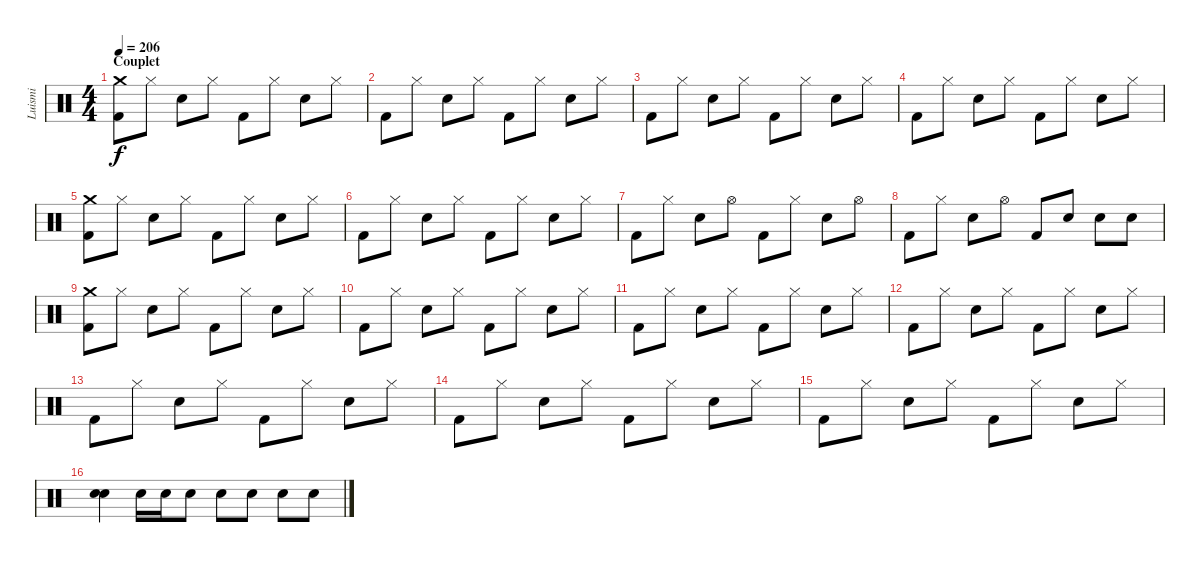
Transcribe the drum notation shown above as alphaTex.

\track ("Luismi" "Luismi") {instrument percussion}
\staff {score}
\articulation defaults
\ts (4 4)
\section ("" "Couplet")
\tempo 206
\clef neutral
\ks c
("Crash medium (hit)" "Kick (hit) 2").8{dy f} "Hi-Hat (closed)".8 "Snare (hit) 2".8 "Hi-Hat (closed)".8 "Kick (hit) 2".8 "Hi-Hat (closed)".8 "Snare (hit) 2".8 "Hi-Hat (closed)".8 |
"Kick (hit) 2".8 "Hi-Hat (closed)".8 "Snare (hit) 2".8 "Hi-Hat (closed)".8 "Kick (hit) 2".8 "Hi-Hat (closed)".8 "Snare (hit) 2".8 "Hi-Hat (closed)".8 |
"Kick (hit) 2".8 "Hi-Hat (closed)".8 "Snare (hit) 2".8 "Hi-Hat (closed)".8 "Kick (hit) 2".8 "Hi-Hat (closed)".8 "Snare (hit) 2".8 "Hi-Hat (closed)".8 |
"Kick (hit) 2".8 "Hi-Hat (closed)".8 "Snare (hit) 2".8 "Hi-Hat (closed)".8 "Kick (hit) 2".8 "Hi-Hat (closed)".8 "Snare (hit) 2".8 "Hi-Hat (closed)".8 |
("Crash medium (hit)" "Kick (hit) 2").8 "Hi-Hat (closed)".8 "Snare (hit) 2".8 "Hi-Hat (closed)".8 "Kick (hit) 2".8 "Hi-Hat (closed)".8 "Snare (hit) 2".8 "Hi-Hat (closed)".8 |
"Kick (hit) 2".8 "Hi-Hat (closed)".8 "Snare (hit) 2".8 "Hi-Hat (closed)".8 "Kick (hit) 2".8 "Hi-Hat (closed)".8 "Snare (hit) 2".8 "Hi-Hat (closed)".8 |
"Kick (hit) 2".8 "Hi-Hat (closed)".8 "Snare (hit) 2".8 "Hi-Hat (open)".8 "Kick (hit) 2".8 "Hi-Hat (closed)".8 "Snare (hit) 2".8 "Hi-Hat (open)".8 |
"Kick (hit) 2".8 "Hi-Hat (closed)".8 "Snare (hit) 2".8 "Hi-Hat (open)".8 "Kick (hit) 2".8 "Snare (hit) 2".8 "Snare (hit) 2".8 "Snare (hit) 2".8 |
("Crash medium (hit)" "Kick (hit) 2").8 "Hi-Hat (closed)".8 "Snare (hit) 2".8 "Hi-Hat (closed)".8 "Kick (hit) 2".8 "Hi-Hat (closed)".8 "Snare (hit) 2".8 "Hi-Hat (closed)".8 |
"Kick (hit) 2".8 "Hi-Hat (closed)".8 "Snare (hit) 2".8 "Hi-Hat (closed)".8 "Kick (hit) 2".8 "Hi-Hat (closed)".8 "Snare (hit) 2".8 "Hi-Hat (closed)".8 |
"Kick (hit) 2".8 "Hi-Hat (closed)".8 "Snare (hit) 2".8 "Hi-Hat (closed)".8 "Kick (hit) 2".8 "Hi-Hat (closed)".8 "Snare (hit) 2".8 "Hi-Hat (closed)".8 |
"Kick (hit) 2".8 "Hi-Hat (closed)".8 "Snare (hit) 2".8 "Hi-Hat (closed)".8 "Kick (hit) 2".8 "Hi-Hat (closed)".8 "Snare (hit) 2".8 "Hi-Hat (closed)".8 |
"Kick (hit) 2".8 "Hi-Hat (closed)".8 "Snare (hit) 2".8 "Hi-Hat (closed)".8 "Kick (hit) 2".8 "Hi-Hat (closed)".8 "Snare (hit) 2".8 "Hi-Hat (closed)".8 |
"Kick (hit) 2".8 "Hi-Hat (closed)".8 "Snare (hit) 2".8 "Hi-Hat (closed)".8 "Kick (hit) 2".8 "Hi-Hat (closed)".8 "Snare (hit) 2".8 "Hi-Hat (closed)".8 |
"Kick (hit) 2".8 "Hi-Hat (closed)".8 "Snare (hit) 2".8 "Hi-Hat (closed)".8 "Kick (hit) 2".8 "Hi-Hat (closed)".8 "Snare (hit) 2".8 "Hi-Hat (closed)".8 |
("Snare (hit) 2" "Snare (hit) 2").4 "Snare (hit) 2".16 "Snare (hit) 2".16 "Snare (hit) 2".8 "Snare (hit) 2".8 "Snare (hit) 2".8 "Snare (hit) 2".8 "Snare (hit) 2".8
